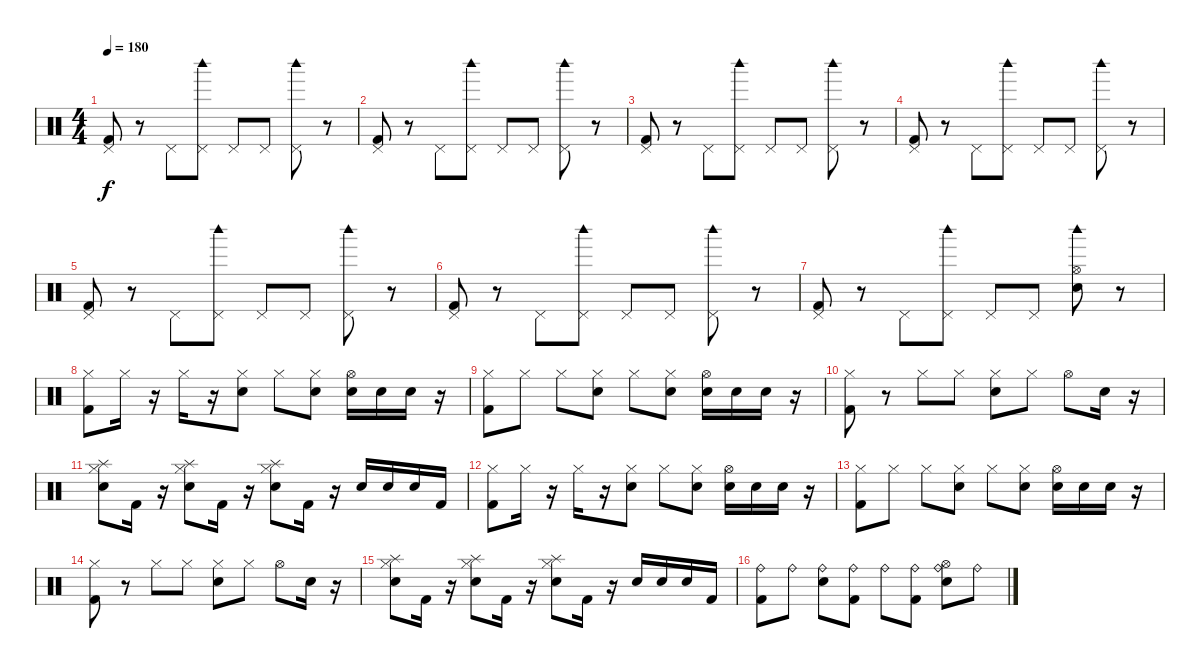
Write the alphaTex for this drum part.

\track "" {instrument percussion}
\staff {score}
\articulation defaults
\ts (4 4)
\tempo 180
\clef neutral
\ks c
("Pedal Hi-Hat (hit)" "Kick (hit) 2").8{dy f} r.8 "Pedal Hi-Hat (hit)".8 ("Pedal Hi-Hat (hit)" "Woodblock high (hit)").8 "Pedal Hi-Hat (hit)".8 "Pedal Hi-Hat (hit)".8 ("Pedal Hi-Hat (hit)" "Woodblock high (hit)").8 r.8 |
("Pedal Hi-Hat (hit)" "Kick (hit) 2").8 r.8 "Pedal Hi-Hat (hit)".8 ("Pedal Hi-Hat (hit)" "Woodblock high (hit)").8 "Pedal Hi-Hat (hit)".8 "Pedal Hi-Hat (hit)".8 ("Pedal Hi-Hat (hit)" "Woodblock high (hit)").8 r.8 |
("Pedal Hi-Hat (hit)" "Kick (hit) 2").8 r.8 "Pedal Hi-Hat (hit)".8 ("Pedal Hi-Hat (hit)" "Woodblock high (hit)").8 "Pedal Hi-Hat (hit)".8 "Pedal Hi-Hat (hit)".8 ("Pedal Hi-Hat (hit)" "Woodblock high (hit)").8 r.8 |
("Pedal Hi-Hat (hit)" "Kick (hit) 2").8 r.8 "Pedal Hi-Hat (hit)".8 ("Pedal Hi-Hat (hit)" "Woodblock high (hit)").8 "Pedal Hi-Hat (hit)".8 "Pedal Hi-Hat (hit)".8 ("Pedal Hi-Hat (hit)" "Woodblock high (hit)").8 r.8 |
("Pedal Hi-Hat (hit)" "Kick (hit) 2").8 r.8 "Pedal Hi-Hat (hit)".8 ("Pedal Hi-Hat (hit)" "Woodblock high (hit)").8 "Pedal Hi-Hat (hit)".8 "Pedal Hi-Hat (hit)".8 ("Pedal Hi-Hat (hit)" "Woodblock high (hit)").8 r.8 |
("Pedal Hi-Hat (hit)" "Kick (hit) 2").8 r.8 "Pedal Hi-Hat (hit)".8 ("Pedal Hi-Hat (hit)" "Woodblock high (hit)").8 "Pedal Hi-Hat (hit)".8 "Pedal Hi-Hat (hit)".8 ("Pedal Hi-Hat (hit)" "Woodblock high (hit)").8 r.8 |
("Pedal Hi-Hat (hit)" "Kick (hit) 2").8 r.8 "Pedal Hi-Hat (hit)".8 ("Pedal Hi-Hat (hit)" "Woodblock high (hit)").8 "Pedal Hi-Hat (hit)".8 "Pedal Hi-Hat (hit)".8 ("Hi-Hat (open)" "Electric Snare (hit)" "Woodblock high (hit)").8 r.8 |
("Hi-Hat (closed)" "Kick (hit) 2").8 "Hi-Hat (closed)".16 r.16 "Hi-Hat (closed)".16 r.16 ("Hi-Hat (closed)" "Electric Snare (hit)").8 "Hi-Hat (closed)".8 ("Hi-Hat (closed)" "Electric Snare (hit)").8 ("Hi-Hat (open)" "Electric Snare (hit)").16 "Electric Snare (hit)".16 "Electric Snare (hit)".16 r.16 |
("Hi-Hat (closed)" "Kick (hit) 2").8 "Hi-Hat (closed)".8 "Hi-Hat (closed)".8 ("Hi-Hat (closed)" "Electric Snare (hit)").8 "Hi-Hat (closed)".8 ("Hi-Hat (closed)" "Electric Snare (hit)").8 ("Hi-Hat (open)" "Electric Snare (hit)").16 "Electric Snare (hit)".16 "Electric Snare (hit)".16 r.16 |
("Hi-Hat (closed)" "Kick (hit) 2").8 r.8 "Hi-Hat (closed)".8 "Hi-Hat (closed)".8 ("Hi-Hat (closed)" "Electric Snare (hit)").8 "Hi-Hat (closed)".8 "Hi-Hat (open)".8 "Electric Snare (hit)".16 r.16 |
("Hi-Hat (closed)" "Splash (hit)" "Electric Snare (hit)").8 "Kick (hit) 2".16 r.16 ("Hi-Hat (closed)" "Splash (hit)" "Electric Snare (hit)").8 "Kick (hit) 2".16 r.16 ("Hi-Hat (closed)" "Splash (hit)" "Electric Snare (hit)").8 "Kick (hit) 2".16 r.16 "Electric Snare (hit)".16 "Electric Snare (hit)".16 "Electric Snare (hit)".16 "Kick (hit) 2".16 |
("Hi-Hat (closed)" "Kick (hit) 2").8 "Hi-Hat (closed)".16 r.16 "Hi-Hat (closed)".16 r.16 ("Hi-Hat (closed)" "Electric Snare (hit)").8 "Hi-Hat (closed)".8 ("Hi-Hat (closed)" "Electric Snare (hit)").8 ("Hi-Hat (open)" "Electric Snare (hit)").16 "Electric Snare (hit)".16 "Electric Snare (hit)".16 r.16 |
("Hi-Hat (closed)" "Kick (hit) 2").8 "Hi-Hat (closed)".8 "Hi-Hat (closed)".8 ("Hi-Hat (closed)" "Electric Snare (hit)").8 "Hi-Hat (closed)".8 ("Hi-Hat (closed)" "Electric Snare (hit)").8 ("Hi-Hat (open)" "Electric Snare (hit)").16 "Electric Snare (hit)".16 "Electric Snare (hit)".16 r.16 |
("Hi-Hat (closed)" "Kick (hit) 2").8 r.8 "Hi-Hat (closed)".8 "Hi-Hat (closed)".8 ("Hi-Hat (closed)" "Electric Snare (hit)").8 "Hi-Hat (closed)".8 "Hi-Hat (open)".8 "Electric Snare (hit)".16 r.16 |
("Hi-Hat (closed)" "Splash (hit)" "Electric Snare (hit)").8 "Kick (hit) 2".16 r.16 ("Hi-Hat (closed)" "Splash (hit)" "Electric Snare (hit)").8 "Kick (hit) 2".16 r.16 ("Hi-Hat (closed)" "Splash (hit)" "Electric Snare (hit)").8 "Kick (hit) 2".16 r.16 "Electric Snare (hit)".16 "Electric Snare (hit)".16 "Electric Snare (hit)".16 "Kick (hit) 2".16 |
("Ride (bell)" "Kick (hit) 2").8 "Ride (bell)".8 ("Ride (bell)" "Electric Snare (hit)").8 ("Ride (bell)" "Kick (hit) 2").8 "Ride (bell)".8 ("Ride (bell)" "Kick (hit) 2").8 ("Ride (bell)" "Hi-Hat (open)" "Electric Snare (hit)").8 "Ride (bell)".8
